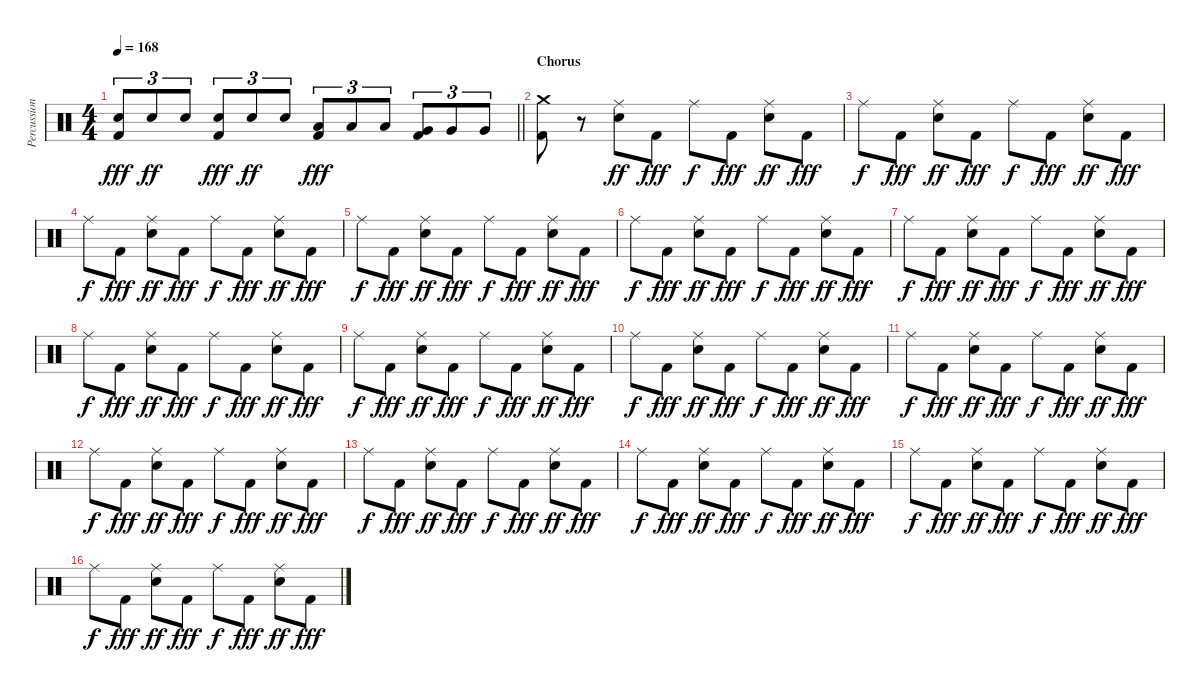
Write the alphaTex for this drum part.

\track ("Percussion" "Percussion") {instrument percussion}
\staff {score}
\articulation defaults
\ts (4 4)
\tempo 168
\clef neutral
\barLineRight lightlight
\ks c
("Electric Snare (hit)" "Kick (hit) 2").8{tu (3 2) dy fff} "Electric Snare (hit)".8{tu (3 2) dy ff} "Electric Snare (hit)".8{tu (3 2)} ("Electric Snare (hit)" "Kick (hit) 2").8{tu (3 2) dy fff} "Electric Snare (hit)".8{tu (3 2) dy ff} "Electric Snare (hit)".8{tu (3 2)} ("Low Tom (hit)" "Kick (hit) 2").8{tu (3 2) dy fff} "Low Tom (hit)".8{tu (3 2)} "Low Tom (hit)".8{tu (3 2)} ("Very Low Tom (hit)" "Kick (hit) 2").8{tu (3 2)} "Very Low Tom (hit)".8{tu (3 2)} "Very Low Tom (hit)".8{tu (3 2)} |
\section ("" "Chorus")
("Crash medium (hit)" "Kick (hit) 2").8 r.8 ("Ride (middle)" "Electric Snare (hit)").8{dy ff} "Kick (hit) 2".8{dy fff} "Ride (middle)".8{dy f} "Kick (hit) 2".8{dy fff} ("Ride (middle)" "Electric Snare (hit)").8{dy ff} "Kick (hit) 2".8{dy fff} |
"Ride (middle)".8{dy f} "Kick (hit) 2".8{dy fff} ("Ride (middle)" "Electric Snare (hit)").8{dy ff} "Kick (hit) 2".8{dy fff} "Ride (middle)".8{dy f} "Kick (hit) 2".8{dy fff} ("Ride (middle)" "Electric Snare (hit)").8{dy ff} "Kick (hit) 2".8{dy fff} |
"Ride (middle)".8{dy f} "Kick (hit) 2".8{dy fff} ("Ride (middle)" "Electric Snare (hit)").8{dy ff} "Kick (hit) 2".8{dy fff} "Ride (middle)".8{dy f} "Kick (hit) 2".8{dy fff} ("Ride (middle)" "Electric Snare (hit)").8{dy ff} "Kick (hit) 2".8{dy fff} |
"Ride (middle)".8{dy f} "Kick (hit) 2".8{dy fff} ("Ride (middle)" "Electric Snare (hit)").8{dy ff} "Kick (hit) 2".8{dy fff} "Ride (middle)".8{dy f} "Kick (hit) 2".8{dy fff} ("Ride (middle)" "Electric Snare (hit)").8{dy ff} "Kick (hit) 2".8{dy fff} |
"Ride (middle)".8{dy f} "Kick (hit) 2".8{dy fff} ("Ride (middle)" "Electric Snare (hit)").8{dy ff} "Kick (hit) 2".8{dy fff} "Ride (middle)".8{dy f} "Kick (hit) 2".8{dy fff} ("Ride (middle)" "Electric Snare (hit)").8{dy ff} "Kick (hit) 2".8{dy fff} |
"Ride (middle)".8{dy f} "Kick (hit) 2".8{dy fff} ("Ride (middle)" "Electric Snare (hit)").8{dy ff} "Kick (hit) 2".8{dy fff} "Ride (middle)".8{dy f} "Kick (hit) 2".8{dy fff} ("Ride (middle)" "Electric Snare (hit)").8{dy ff} "Kick (hit) 2".8{dy fff} |
"Ride (middle)".8{dy f} "Kick (hit) 2".8{dy fff} ("Ride (middle)" "Electric Snare (hit)").8{dy ff} "Kick (hit) 2".8{dy fff} "Ride (middle)".8{dy f} "Kick (hit) 2".8{dy fff} ("Ride (middle)" "Electric Snare (hit)").8{dy ff} "Kick (hit) 2".8{dy fff} |
"Ride (middle)".8{dy f} "Kick (hit) 2".8{dy fff} ("Ride (middle)" "Electric Snare (hit)").8{dy ff} "Kick (hit) 2".8{dy fff} "Ride (middle)".8{dy f} "Kick (hit) 2".8{dy fff} ("Ride (middle)" "Electric Snare (hit)").8{dy ff} "Kick (hit) 2".8{dy fff} |
"Ride (middle)".8{dy f} "Kick (hit) 2".8{dy fff} ("Ride (middle)" "Electric Snare (hit)").8{dy ff} "Kick (hit) 2".8{dy fff} "Ride (middle)".8{dy f} "Kick (hit) 2".8{dy fff} ("Ride (middle)" "Electric Snare (hit)").8{dy ff} "Kick (hit) 2".8{dy fff} |
"Ride (middle)".8{dy f} "Kick (hit) 2".8{dy fff} ("Ride (middle)" "Electric Snare (hit)").8{dy ff} "Kick (hit) 2".8{dy fff} "Ride (middle)".8{dy f} "Kick (hit) 2".8{dy fff} ("Ride (middle)" "Electric Snare (hit)").8{dy ff} "Kick (hit) 2".8{dy fff} |
"Ride (middle)".8{dy f} "Kick (hit) 2".8{dy fff} ("Ride (middle)" "Electric Snare (hit)").8{dy ff} "Kick (hit) 2".8{dy fff} "Ride (middle)".8{dy f} "Kick (hit) 2".8{dy fff} ("Ride (middle)" "Electric Snare (hit)").8{dy ff} "Kick (hit) 2".8{dy fff} |
"Ride (middle)".8{dy f} "Kick (hit) 2".8{dy fff} ("Ride (middle)" "Electric Snare (hit)").8{dy ff} "Kick (hit) 2".8{dy fff} "Ride (middle)".8{dy f} "Kick (hit) 2".8{dy fff} ("Ride (middle)" "Electric Snare (hit)").8{dy ff} "Kick (hit) 2".8{dy fff} |
"Ride (middle)".8{dy f} "Kick (hit) 2".8{dy fff} ("Ride (middle)" "Electric Snare (hit)").8{dy ff} "Kick (hit) 2".8{dy fff} "Ride (middle)".8{dy f} "Kick (hit) 2".8{dy fff} ("Ride (middle)" "Electric Snare (hit)").8{dy ff} "Kick (hit) 2".8{dy fff} |
"Ride (middle)".8{dy f} "Kick (hit) 2".8{dy fff} ("Ride (middle)" "Electric Snare (hit)").8{dy ff} "Kick (hit) 2".8{dy fff} "Ride (middle)".8{dy f} "Kick (hit) 2".8{dy fff} ("Ride (middle)" "Electric Snare (hit)").8{dy ff} "Kick (hit) 2".8{dy fff} |
"Ride (middle)".8{dy f} "Kick (hit) 2".8{dy fff} ("Ride (middle)" "Electric Snare (hit)").8{dy ff} "Kick (hit) 2".8{dy fff} "Ride (middle)".8{dy f} "Kick (hit) 2".8{dy fff} ("Ride (middle)" "Electric Snare (hit)").8{dy ff} "Kick (hit) 2".8{dy fff}
